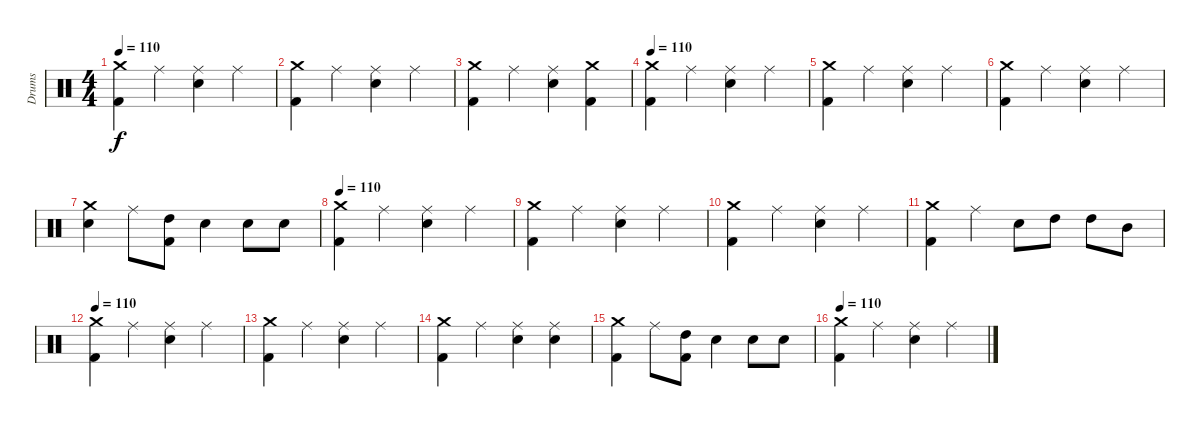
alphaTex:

\track ("Drums" "Drums") {instrument percussion}
\staff {score}
\articulation defaults
\ts (4 4)
\tempo 110
\clef neutral
\ks c
("Crash medium (hit)" "Kick (hit) 2").4{dy f} "Ride (middle)".4 ("Ride (middle)" "Electric Snare (hit)").4 "Ride (middle)".4 |
("Crash medium (hit)" "Kick (hit) 2").4 "Ride (middle)".4 ("Ride (middle)" "Electric Snare (hit)").4 "Ride (middle)".4 |
("Crash medium (hit)" "Kick (hit) 2").4 "Ride (middle)".4 ("Ride (middle)" "Electric Snare (hit)").4 ("Crash medium (hit)" "Kick (hit) 2").4 |
\tempo 110
("Crash medium (hit)" "Kick (hit) 2").4 "Ride (middle)".4 ("Ride (middle)" "Electric Snare (hit)").4 "Ride (middle)".4 |
("Crash medium (hit)" "Kick (hit) 2").4 "Ride (middle)".4 ("Ride (middle)" "Electric Snare (hit)").4 "Ride (middle)".4 |
("Crash medium (hit)" "Kick (hit) 2").4 "Ride (middle)".4 ("Ride (middle)" "Electric Snare (hit)").4 "Ride (middle)".4 |
("Crash medium (hit)" "Electric Snare (hit)").4 "Ride (middle)".8 ("Kick (hit) 2" "High Tom (hit)").8 "Electric Snare (hit)".4 "Electric Snare (hit)".8 "Electric Snare (hit)".8 |
\tempo 110
("Crash medium (hit)" "Kick (hit) 2").4 "Ride (middle)".4 ("Ride (middle)" "Electric Snare (hit)").4 "Ride (middle)".4 |
("Crash medium (hit)" "Kick (hit) 2").4 "Ride (middle)".4 ("Ride (middle)" "Electric Snare (hit)").4 "Ride (middle)".4 |
("Crash medium (hit)" "Kick (hit) 2").4 "Ride (middle)".4 ("Ride (middle)" "Electric Snare (hit)").4 "Ride (middle)".4 |
("Crash medium (hit)" "Kick (hit) 2").4 "Ride (middle)".4 "Electric Snare (hit)".8 "High Tom (hit)".8 "High Tom (hit)".8 "Mid Tom (hit)".8 |
\tempo 110
("Crash medium (hit)" "Kick (hit) 2").4 "Ride (middle)".4 ("Ride (middle)" "Electric Snare (hit)").4 "Ride (middle)".4 |
("Crash medium (hit)" "Kick (hit) 2").4 "Ride (middle)".4 ("Ride (middle)" "Electric Snare (hit)").4 "Ride (middle)".4 |
("Crash medium (hit)" "Kick (hit) 2").4 "Ride (middle)".4 ("Ride (middle)" "Electric Snare (hit)").4 ("Ride (middle)" "Electric Snare (hit)").4 |
("Crash medium (hit)" "Kick (hit) 2").4 "Ride (middle)".8 ("Kick (hit) 2" "High Tom (hit)").8 "Electric Snare (hit)".4 "Electric Snare (hit)".8 "Electric Snare (hit)".8 |
\tempo 110
("Crash medium (hit)" "Kick (hit) 2").4 "Ride (middle)".4 ("Ride (middle)" "Electric Snare (hit)").4 "Ride (middle)".4
